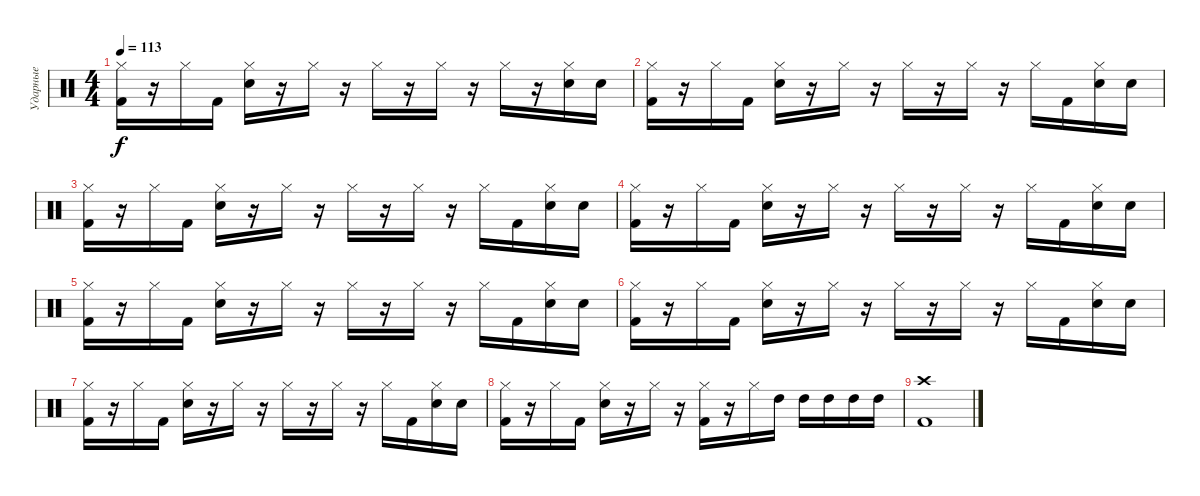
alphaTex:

\track ("Ударные" "Ударные") {instrument percussion}
\staff {score}
\articulation defaults
\ts (4 4)
\tempo 113
\clef neutral
\ks c
("Kick (hit) 2" "Hi-Hat (closed)").16{dy f} r.16 "Hi-Hat (closed)".16 "Kick (hit) 2".16 ("Electric Snare (hit)" "Hi-Hat (closed)").16 r.16 "Hi-Hat (closed)".16 r.16 "Hi-Hat (closed)".16 r.16 "Hi-Hat (closed)".16 r.16 "Hi-Hat (closed)".16 r.16 ("Electric Snare (hit)" "Hi-Hat (closed)").16 "Electric Snare (hit)".16 |
("Kick (hit) 2" "Hi-Hat (closed)").16 r.16 "Hi-Hat (closed)".16 "Kick (hit) 2".16 ("Electric Snare (hit)" "Hi-Hat (closed)").16 r.16 "Hi-Hat (closed)".16 r.16 "Hi-Hat (closed)".16 r.16 "Hi-Hat (closed)".16 r.16 "Hi-Hat (closed)".16 "Kick (hit) 2".16 ("Electric Snare (hit)" "Hi-Hat (closed)").16 "Electric Snare (hit)".16 |
("Kick (hit) 2" "Hi-Hat (closed)").16 r.16 "Hi-Hat (closed)".16 "Kick (hit) 2".16 ("Electric Snare (hit)" "Hi-Hat (closed)").16 r.16 "Hi-Hat (closed)".16 r.16 "Hi-Hat (closed)".16 r.16 "Hi-Hat (closed)".16 r.16 "Hi-Hat (closed)".16 "Kick (hit) 2".16 ("Electric Snare (hit)" "Hi-Hat (closed)").16 "Electric Snare (hit)".16 |
("Kick (hit) 2" "Hi-Hat (closed)").16 r.16 "Hi-Hat (closed)".16 "Kick (hit) 2".16 ("Electric Snare (hit)" "Hi-Hat (closed)").16 r.16 "Hi-Hat (closed)".16 r.16 "Hi-Hat (closed)".16 r.16 "Hi-Hat (closed)".16 r.16 "Hi-Hat (closed)".16 "Kick (hit) 2".16 ("Electric Snare (hit)" "Hi-Hat (closed)").16 "Electric Snare (hit)".16 |
("Kick (hit) 2" "Hi-Hat (closed)").16 r.16 "Hi-Hat (closed)".16 "Kick (hit) 2".16 ("Electric Snare (hit)" "Hi-Hat (closed)").16 r.16 "Hi-Hat (closed)".16 r.16 "Hi-Hat (closed)".16 r.16 "Hi-Hat (closed)".16 r.16 "Hi-Hat (closed)".16 "Kick (hit) 2".16 ("Electric Snare (hit)" "Hi-Hat (closed)").16 "Electric Snare (hit)".16 |
("Kick (hit) 2" "Hi-Hat (closed)").16 r.16 "Hi-Hat (closed)".16 "Kick (hit) 2".16 ("Electric Snare (hit)" "Hi-Hat (closed)").16 r.16 "Hi-Hat (closed)".16 r.16 "Hi-Hat (closed)".16 r.16 "Hi-Hat (closed)".16 r.16 "Hi-Hat (closed)".16 "Kick (hit) 2".16 ("Electric Snare (hit)" "Hi-Hat (closed)").16 "Electric Snare (hit)".16 |
("Kick (hit) 2" "Hi-Hat (closed)").16 r.16 "Hi-Hat (closed)".16 "Kick (hit) 2".16 ("Electric Snare (hit)" "Hi-Hat (closed)").16 r.16 "Hi-Hat (closed)".16 r.16 "Hi-Hat (closed)".16 r.16 "Hi-Hat (closed)".16 r.16 "Hi-Hat (closed)".16 "Kick (hit) 2".16 ("Electric Snare (hit)" "Hi-Hat (closed)").16 "Electric Snare (hit)".16 |
("Kick (hit) 2" "Hi-Hat (closed)").16 r.16 "Hi-Hat (closed)".16 "Kick (hit) 2".16 ("Electric Snare (hit)" "Hi-Hat (closed)").16 r.16 "Hi-Hat (closed)".16 r.16 ("Kick (hit) 2" "Hi-Hat (closed)").16 r.16 "Hi-Hat (closed)".16 "High Tom (hit)".16 "High Tom (hit)".16 "High Tom (hit)".16 "High Tom (hit)".16 "High Tom (hit)".16 |
("Kick (hit) 2" "Crash high (hit)").1
